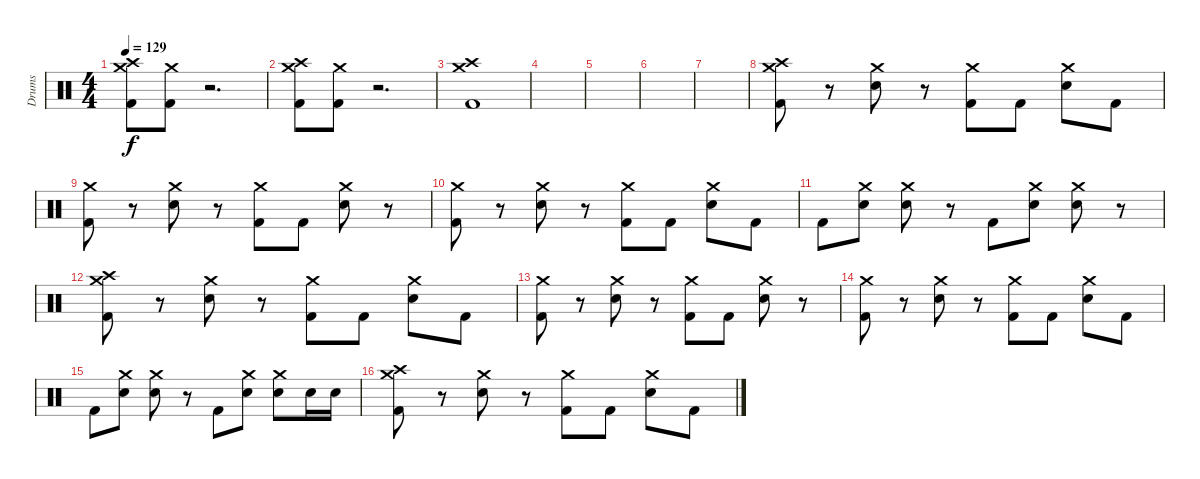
\track ("Drums" "Drums") {instrument percussion}
\staff {score}
\articulation defaults
\ts (4 4)
\tempo 129
\clef neutral
\ks c
("Crash high (hit)" "Crash medium (hit)" "Kick (hit) 2").8{dy f} ("Crash medium (hit)" "Kick (hit) 2").8 r.2{d} |
("Crash high (hit)" "Crash medium (hit)" "Kick (hit) 2").8 ("Crash medium (hit)" "Kick (hit) 2").8 r.2{d} |
("Crash high (hit)" "Crash medium (hit)" "Kick (hit) 2").1 |
|
|
|
|
("Crash high (hit)" "Crash medium (hit)" "Kick (hit) 2").8 r.8 ("Crash medium (hit)" "Snare (hit) 2").8 r.8 ("Crash medium (hit)" "Kick (hit) 2").8 "Kick (hit) 2".8 ("Crash medium (hit)" "Snare (hit) 2").8 "Kick (hit) 2".8 |
("Crash medium (hit)" "Kick (hit) 2").8 r.8 ("Crash medium (hit)" "Snare (hit) 2").8 r.8 ("Crash medium (hit)" "Kick (hit) 2").8 "Kick (hit) 2".8 ("Crash medium (hit)" "Snare (hit) 2").8 r.8 |
("Crash medium (hit)" "Kick (hit) 2").8 r.8 ("Crash medium (hit)" "Snare (hit) 2").8 r.8 ("Crash medium (hit)" "Kick (hit) 2").8 "Kick (hit) 2".8 ("Crash medium (hit)" "Snare (hit) 2").8 "Kick (hit) 2".8 |
"Kick (hit) 2".8 ("Crash medium (hit)" "Snare (hit) 2").8 ("Crash medium (hit)" "Snare (hit) 2").8 r.8 "Kick (hit) 2".8 ("Crash medium (hit)" "Snare (hit) 2").8 ("Crash medium (hit)" "Snare (hit) 2").8 r.8 |
("Crash high (hit)" "Crash medium (hit)" "Kick (hit) 2").8 r.8 ("Crash medium (hit)" "Snare (hit) 2").8 r.8 ("Crash medium (hit)" "Kick (hit) 2").8 "Kick (hit) 2".8 ("Crash medium (hit)" "Snare (hit) 2").8 "Kick (hit) 2".8 |
("Crash medium (hit)" "Kick (hit) 2").8 r.8 ("Crash medium (hit)" "Snare (hit) 2").8 r.8 ("Crash medium (hit)" "Kick (hit) 2").8 "Kick (hit) 2".8 ("Crash medium (hit)" "Snare (hit) 2").8 r.8 |
("Crash medium (hit)" "Kick (hit) 2").8 r.8 ("Crash medium (hit)" "Snare (hit) 2").8 r.8 ("Crash medium (hit)" "Kick (hit) 2").8 "Kick (hit) 2".8 ("Crash medium (hit)" "Snare (hit) 2").8 "Kick (hit) 2".8 |
"Kick (hit) 2".8 ("Crash medium (hit)" "Snare (hit) 2").8 ("Crash medium (hit)" "Snare (hit) 2").8 r.8 "Kick (hit) 2".8 ("Crash medium (hit)" "Snare (hit) 2").8 ("Crash medium (hit)" "Snare (hit) 2").8 "Snare (hit) 2".16 "Snare (hit) 2".16 |
("Crash high (hit)" "Crash medium (hit)" "Kick (hit) 2").8 r.8 ("Crash medium (hit)" "Snare (hit) 2").8 r.8 ("Crash medium (hit)" "Kick (hit) 2").8 "Kick (hit) 2".8 ("Crash medium (hit)" "Snare (hit) 2").8 "Kick (hit) 2".8
